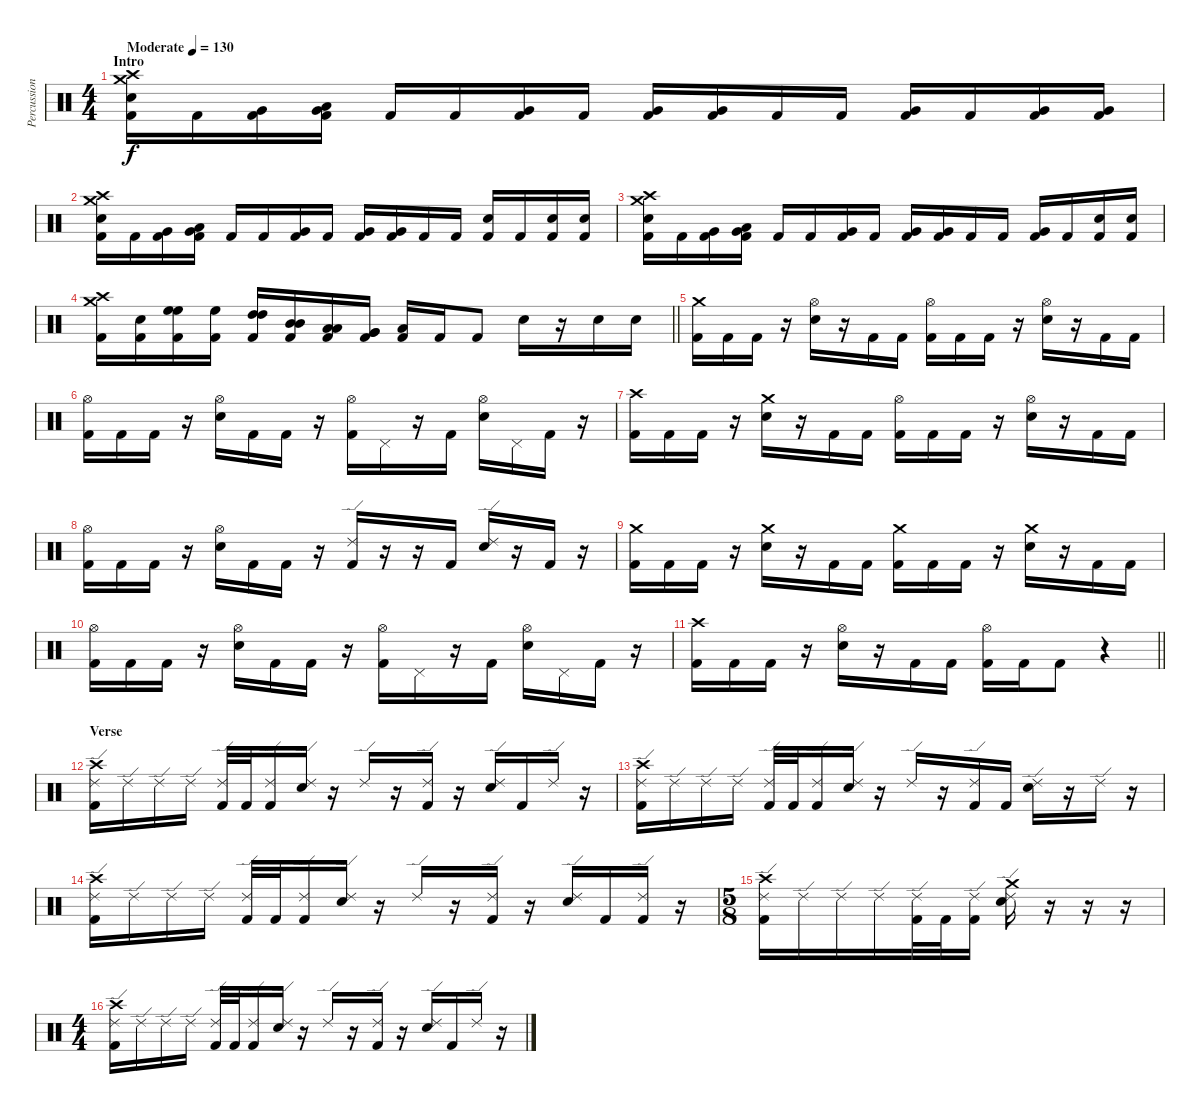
\track ("Percussion" "Percussion") {instrument percussion}
\staff {score}
\articulation defaults
\ts (4 4)
\section ("" "Intro")
\tempo (130 "Moderate")
\clef neutral
\ks c
("Crash medium (hit)" "Crash high (hit)" "Electric Snare (hit)" "Kick (hit) 2").16{dy f} "Kick (hit) 2".16 ("Very Low Tom (hit)" "Kick (hit) 2").16 ("Low Tom (hit)" "Very Low Tom (hit)" "Kick (hit) 2").16 "Kick (hit) 2".16 "Kick (hit) 2".16 ("Very Low Tom (hit)" "Kick (hit) 2").16 "Kick (hit) 2".16 ("Very Low Tom (hit)" "Kick (hit) 2").16 ("Very Low Tom (hit)" "Kick (hit) 2").16 "Kick (hit) 2".16 "Kick (hit) 2".16 ("Very Low Tom (hit)" "Kick (hit) 2").16 "Kick (hit) 2".16 ("Very Low Tom (hit)" "Kick (hit) 2").16 ("Very Low Tom (hit)" "Kick (hit) 2").16 |
("Crash medium (hit)" "Crash high (hit)" "Electric Snare (hit)" "Kick (hit) 2").16 "Kick (hit) 2".16 ("Very Low Tom (hit)" "Kick (hit) 2").16 ("Low Tom (hit)" "Very Low Tom (hit)" "Kick (hit) 2").16 "Kick (hit) 2".16 "Kick (hit) 2".16 ("Very Low Tom (hit)" "Kick (hit) 2").16 "Kick (hit) 2".16 ("Very Low Tom (hit)" "Kick (hit) 2").16 ("Very Low Tom (hit)" "Kick (hit) 2").16 "Kick (hit) 2".16 "Kick (hit) 2".16 ("Electric Snare (hit)" "Kick (hit) 2").16 "Kick (hit) 2".16 ("Electric Snare (hit)" "Kick (hit) 2").16 ("Electric Snare (hit)" "Kick (hit) 2").16 |
("Crash medium (hit)" "Crash high (hit)" "Electric Snare (hit)" "Kick (hit) 2").16 "Kick (hit) 2".16 ("Very Low Tom (hit)" "Kick (hit) 2").16 ("Low Tom (hit)" "Very Low Tom (hit)" "Kick (hit) 2").16 "Kick (hit) 2".16 "Kick (hit) 2".16 ("Very Low Tom (hit)" "Kick (hit) 2").16 "Kick (hit) 2".16 ("Very Low Tom (hit)" "Kick (hit) 2").16 ("Very Low Tom (hit)" "Kick (hit) 2").16 "Kick (hit) 2".16 "Kick (hit) 2".16 ("Very Low Tom (hit)" "Kick (hit) 2").16 "Kick (hit) 2".16 ("Electric Snare (hit)" "Kick (hit) 2").16 ("Electric Snare (hit)" "Kick (hit) 2").16 |
\barLineRight lightlight
("Crash medium (hit)" "Crash high (hit)" "Kick (hit) 2").16 ("Electric Snare (hit)" "Kick (hit) 2").16 ("High Floor Tom (hit)" "High Floor Tom (hit)" "Kick (hit) 2").16 ("High Floor Tom (hit)" "Kick (hit) 2").16 ("High Tom (hit)" "High Tom (hit)" "Kick (hit) 2").16 ("Mid Tom (hit)" "Mid Tom (hit)" "Kick (hit) 2").16 ("Low Tom (hit)" "Low Tom (hit)" "Kick (hit) 2").16 ("Very Low Tom (hit)" "Very Low Tom (hit)" "Kick (hit) 2").16 ("Low Floor Tom (hit)" "Kick (hit) 2").16 "Kick (hit) 2".16 "Kick (hit) 2".8 "Electric Snare (hit)".16 r.16 "Electric Snare (hit)".16 "Electric Snare (hit)".16 |
\section ("" "")
("Crash medium (hit)" "Kick (hit) 2").16 "Kick (hit) 2".16 "Kick (hit) 2".16 r.16 ("Hi-Hat (open)" "Electric Snare (hit)").16 r.16 "Kick (hit) 2".16 "Kick (hit) 2".16 ("Hi-Hat (open)" "Kick (hit) 2").16 "Kick (hit) 2".16 "Kick (hit) 2".16 r.16 ("Hi-Hat (open)" "Electric Snare (hit)").16 r.16 "Kick (hit) 2".16 "Kick (hit) 2".16 |
("Hi-Hat (open)" "Kick (hit) 2").16 "Kick (hit) 2".16 "Kick (hit) 2".16 r.16 ("Hi-Hat (open)" "Electric Snare (hit)").16 "Kick (hit) 2".16 "Kick (hit) 2".16 r.16 ("Hi-Hat (open)" "Kick (hit) 2").16 "Pedal Hi-Hat (hit)".16 r.16 "Kick (hit) 2".16 ("Hi-Hat (open)" "Electric Snare (hit)").16 "Pedal Hi-Hat (hit)".16 "Kick (hit) 2".16 r.16 |
("Crash high (hit)" "Kick (hit) 2").16 "Kick (hit) 2".16 "Kick (hit) 2".16 r.16 ("Crash medium (hit)" "Electric Snare (hit)").16 r.16 "Kick (hit) 2".16 "Kick (hit) 2".16 ("Hi-Hat (open)" "Kick (hit) 2").16 "Kick (hit) 2".16 "Kick (hit) 2".16 r.16 ("Hi-Hat (open)" "Electric Snare (hit)").16 r.16 "Kick (hit) 2".16 "Kick (hit) 2".16 |
("Hi-Hat (open)" "Kick (hit) 2").16 "Kick (hit) 2".16 "Kick (hit) 2".16 r.16 ("Hi-Hat (open)" "Electric Snare (hit)").16 "Kick (hit) 2".16 "Kick (hit) 2".16 r.16 ("Ride (edge) 2" "Kick (hit) 2").16 r.16 r.16 "Kick (hit) 2".16 ("Ride (edge) 2" "Electric Snare (hit)").16 r.16 "Kick (hit) 2".16 r.16 |
("Crash medium (hit)" "Kick (hit) 2").16 "Kick (hit) 2".16 "Kick (hit) 2".16 r.16 ("Crash medium (hit)" "Electric Snare (hit)").16 r.16 "Kick (hit) 2".16 "Kick (hit) 2".16 ("Crash medium (hit)" "Kick (hit) 2").16 "Kick (hit) 2".16 "Kick (hit) 2".16 r.16 ("Crash medium (hit)" "Electric Snare (hit)").16 r.16 "Kick (hit) 2".16 "Kick (hit) 2".16 |
("Hi-Hat (open)" "Kick (hit) 2").16 "Kick (hit) 2".16 "Kick (hit) 2".16 r.16 ("Hi-Hat (open)" "Electric Snare (hit)").16 "Kick (hit) 2".16 "Kick (hit) 2".16 r.16 ("Hi-Hat (open)" "Kick (hit) 2").16 "Pedal Hi-Hat (hit)".16 r.16 "Kick (hit) 2".16 ("Hi-Hat (open)" "Electric Snare (hit)").16 "Pedal Hi-Hat (hit)".16 "Kick (hit) 2".16 r.16 |
\barLineRight lightlight
("Crash high (hit)" "Kick (hit) 2").16 "Kick (hit) 2".16 "Kick (hit) 2".16 r.16 ("Hi-Hat (open)" "Electric Snare (hit)").16 r.16 "Kick (hit) 2".16 "Kick (hit) 2".16 ("Hi-Hat (open)" "Kick (hit) 2").16 "Kick (hit) 2".16 "Kick (hit) 2".8 r.4 |
\section ("" "Verse")
("Crash high (hit)" "Ride (edge) 2" "Kick (hit) 2").16 "Ride (edge) 2".16 "Ride (edge) 2".16 "Ride (edge) 2".16 ("Ride (edge) 2" "Kick (hit) 2").32 "Kick (hit) 2".32 ("Ride (edge) 2" "Kick (hit) 2").16 ("Ride (edge) 2" "Electric Snare (hit)").16 r.16 "Ride (edge) 2".16 r.16 ("Ride (edge) 2" "Kick (hit) 2").16 r.16 ("Ride (edge) 2" "Electric Snare (hit)").16 "Kick (hit) 2".16 "Ride (edge) 2".16 r.16 |
("Crash high (hit)" "Ride (edge) 2" "Kick (hit) 2").16 "Ride (edge) 2".16 "Ride (edge) 2".16 "Ride (edge) 2".16 ("Ride (edge) 2" "Kick (hit) 2").32 "Kick (hit) 2".32 ("Ride (edge) 2" "Kick (hit) 2").16 ("Ride (edge) 2" "Electric Snare (hit)").16 r.16 "Ride (edge) 2".16 r.16 ("Ride (edge) 2" "Kick (hit) 2").16 "Kick (hit) 2".16 ("Ride (edge) 2" "Electric Snare (hit)").16 r.16 "Ride (edge) 2".16 r.16 |
("Crash high (hit)" "Ride (edge) 2" "Kick (hit) 2").16 "Ride (edge) 2".16 "Ride (edge) 2".16 "Ride (edge) 2".16 ("Ride (edge) 2" "Kick (hit) 2").32 "Kick (hit) 2".32 ("Ride (edge) 2" "Kick (hit) 2").16 ("Ride (edge) 2" "Electric Snare (hit)").16 r.16 "Ride (edge) 2".16 r.16 ("Ride (edge) 2" "Kick (hit) 2").16 r.16 ("Ride (edge) 2" "Electric Snare (hit)").16 "Kick (hit) 2".16 ("Ride (edge) 2" "Kick (hit) 2").16 r.16 |
\ts (5 8)
("Crash high (hit)" "Ride (edge) 2" "Kick (hit) 2").16 "Ride (edge) 2".16 "Ride (edge) 2".16 "Ride (edge) 2".16 ("Ride (edge) 2" "Kick (hit) 2").32 "Kick (hit) 2".32 ("Ride (edge) 2" "Kick (hit) 2").16 ("Crash medium (hit)" "Ride (edge) 2" "Electric Snare (hit)").16 r.16 r.16 r.16 |
\ts (4 4)
("Crash high (hit)" "Ride (edge) 2" "Kick (hit) 2").16 "Ride (edge) 2".16 "Ride (edge) 2".16 "Ride (edge) 2".16 ("Ride (edge) 2" "Kick (hit) 2").32 "Kick (hit) 2".32 ("Ride (edge) 2" "Kick (hit) 2").16 ("Ride (edge) 2" "Electric Snare (hit)").16 r.16 "Ride (edge) 2".16 r.16 ("Ride (edge) 2" "Kick (hit) 2").16 r.16 ("Ride (edge) 2" "Electric Snare (hit)").16 "Kick (hit) 2".16 "Ride (edge) 2".16 r.16
